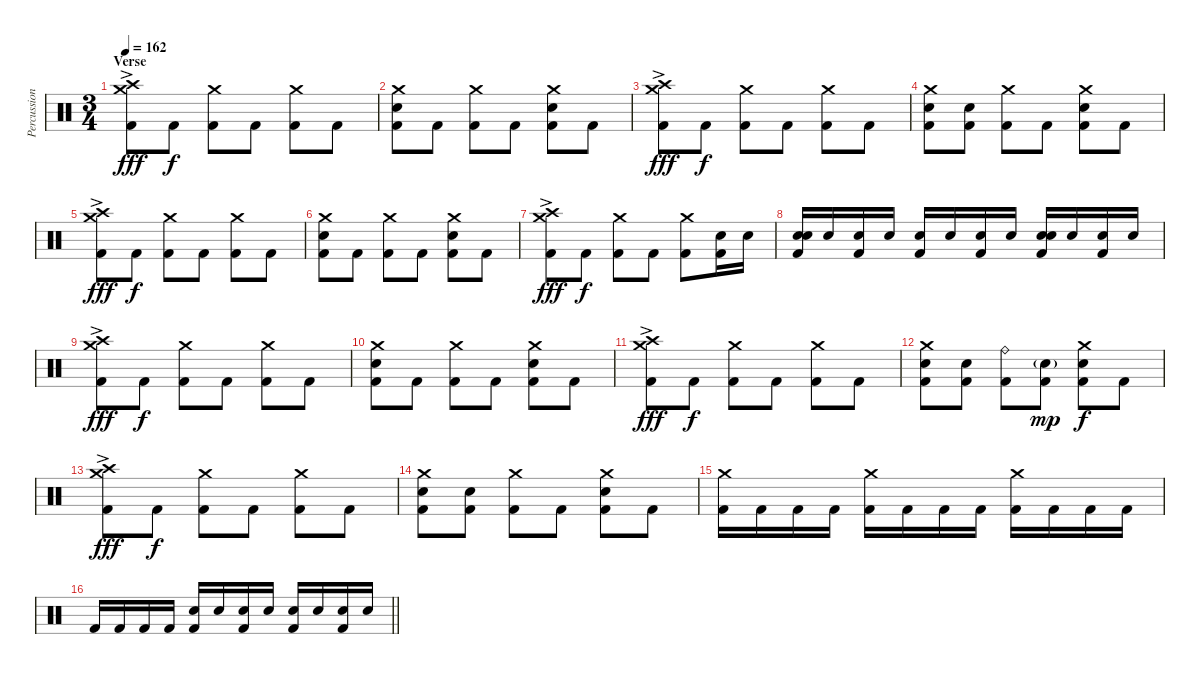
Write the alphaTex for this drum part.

\track ("Percussion" "Percussion") {instrument percussion}
\staff {score}
\articulation defaults
\ts (3 4)
\section ("" "Verse")
\tempo 162
\clef neutral
\ks c
("Crash high (hit)"{ac} "Crash medium (hit)" "Kick (hit) 2").8{dy fff} "Kick (hit) 2".8{dy f} ("Crash medium (hit)" "Kick (hit) 2").8 "Kick (hit) 2".8 ("Crash medium (hit)" "Kick (hit) 2").8 "Kick (hit) 2".8 |
("Crash medium (hit)" "Electric Snare (hit)" "Kick (hit) 2").8 "Kick (hit) 2".8 ("Crash medium (hit)" "Kick (hit) 2").8 "Kick (hit) 2".8 ("Crash medium (hit)" "Electric Snare (hit)" "Kick (hit) 2").8 "Kick (hit) 2".8 |
("Crash high (hit)"{ac} "Crash medium (hit)" "Kick (hit) 2").8{dy fff} "Kick (hit) 2".8{dy f} ("Crash medium (hit)" "Kick (hit) 2").8 "Kick (hit) 2".8 ("Crash medium (hit)" "Kick (hit) 2").8 "Kick (hit) 2".8 |
("Crash medium (hit)" "Electric Snare (hit)" "Kick (hit) 2").8 ("Electric Snare (hit)" "Kick (hit) 2").8 ("Crash medium (hit)" "Kick (hit) 2").8 "Kick (hit) 2".8 ("Crash medium (hit)" "Electric Snare (hit)" "Kick (hit) 2").8 "Kick (hit) 2".8 |
("Crash high (hit)"{ac} "Crash medium (hit)" "Kick (hit) 2").8{dy fff} "Kick (hit) 2".8{dy f} ("Crash medium (hit)" "Kick (hit) 2").8 "Kick (hit) 2".8 ("Crash medium (hit)" "Kick (hit) 2").8 "Kick (hit) 2".8 |
("Crash medium (hit)" "Electric Snare (hit)" "Kick (hit) 2").8 "Kick (hit) 2".8 ("Crash medium (hit)" "Kick (hit) 2").8 "Kick (hit) 2".8 ("Crash medium (hit)" "Electric Snare (hit)" "Kick (hit) 2").8 "Kick (hit) 2".8 |
("Crash high (hit)"{ac} "Crash medium (hit)" "Kick (hit) 2").8{dy fff} "Kick (hit) 2".8{dy f} ("Crash medium (hit)" "Kick (hit) 2").8 "Kick (hit) 2".8 ("Crash medium (hit)" "Kick (hit) 2").8 ("Electric Snare (hit)" "Kick (hit) 2").16 "Electric Snare (hit)".16 |
("Electric Snare (hit)" "Electric Snare (hit)" "Kick (hit) 2").16{bd 60} "Electric Snare (hit)".16 ("Electric Snare (hit)" "Kick (hit) 2").16 "Electric Snare (hit)".16 ("Electric Snare (hit)" "Kick (hit) 2").16 "Electric Snare (hit)".16 ("Electric Snare (hit)" "Kick (hit) 2").16 "Electric Snare (hit)".16 ("Electric Snare (hit)" "Electric Snare (hit)" "Kick (hit) 2").16{bd 60} "Electric Snare (hit)".16 ("Electric Snare (hit)" "Kick (hit) 2").16 "Electric Snare (hit)".16 |
("Crash high (hit)"{ac} "Crash medium (hit)" "Kick (hit) 2").8{dy fff} "Kick (hit) 2".8{dy f} ("Crash medium (hit)" "Kick (hit) 2").8 "Kick (hit) 2".8 ("Crash medium (hit)" "Kick (hit) 2").8 "Kick (hit) 2".8 |
("Crash medium (hit)" "Electric Snare (hit)" "Kick (hit) 2").8 "Kick (hit) 2".8 ("Crash medium (hit)" "Kick (hit) 2").8 "Kick (hit) 2".8 ("Crash medium (hit)" "Electric Snare (hit)" "Kick (hit) 2").8 "Kick (hit) 2".8 |
("Crash high (hit)"{ac} "Crash medium (hit)" "Kick (hit) 2").8{dy fff} "Kick (hit) 2".8{dy f} ("Crash medium (hit)" "Kick (hit) 2").8 "Kick (hit) 2".8 ("Crash medium (hit)" "Kick (hit) 2").8 "Kick (hit) 2".8 |
("Crash medium (hit)" "Electric Snare (hit)" "Kick (hit) 2").8 ("Electric Snare (hit)" "Kick (hit) 2").8 ("Ride (bell)" "Kick (hit) 2").8 ("Electric Snare (hit)"{g} "Kick (hit) 2").8{dy mp} ("Crash medium (hit)" "Electric Snare (hit)" "Kick (hit) 2").8{dy f} "Kick (hit) 2".8 |
("Crash high (hit)"{ac} "Crash medium (hit)" "Kick (hit) 2").8{dy fff} "Kick (hit) 2".8{dy f} ("Crash medium (hit)" "Kick (hit) 2").8 "Kick (hit) 2".8 ("Crash medium (hit)" "Kick (hit) 2").8 "Kick (hit) 2".8 |
("Crash medium (hit)" "Electric Snare (hit)" "Kick (hit) 2").8 ("Electric Snare (hit)" "Kick (hit) 2").8 ("Crash medium (hit)" "Kick (hit) 2").8 "Kick (hit) 2".8 ("Crash medium (hit)" "Electric Snare (hit)" "Kick (hit) 2").8 "Kick (hit) 2".8 |
("Crash medium (hit)" "Kick (hit) 2").16 "Kick (hit) 2".16 "Kick (hit) 2".16 "Kick (hit) 2".16 ("Crash medium (hit)" "Kick (hit) 2").16 "Kick (hit) 2".16 "Kick (hit) 2".16 "Kick (hit) 2".16 ("Crash medium (hit)" "Kick (hit) 2").16 "Kick (hit) 2".16 "Kick (hit) 2".16 "Kick (hit) 2".16 |
\barLineRight lightlight "Kick (hit) 2".16 "Kick (hit) 2".16 "Kick (hit) 2".16 "Kick (hit) 2".16
("Electric Snare (hit)" "Kick (hit) 2").16 "Electric Snare (hit)".16 ("Electric Snare (hit)" "Kick (hit) 2").16 "Electric Snare (hit)".16 ("Electric Snare (hit)" "Kick (hit) 2").16 "Electric Snare (hit)".16 ("Electric Snare (hit)" "Kick (hit) 2").16 "Electric Snare (hit)".16
